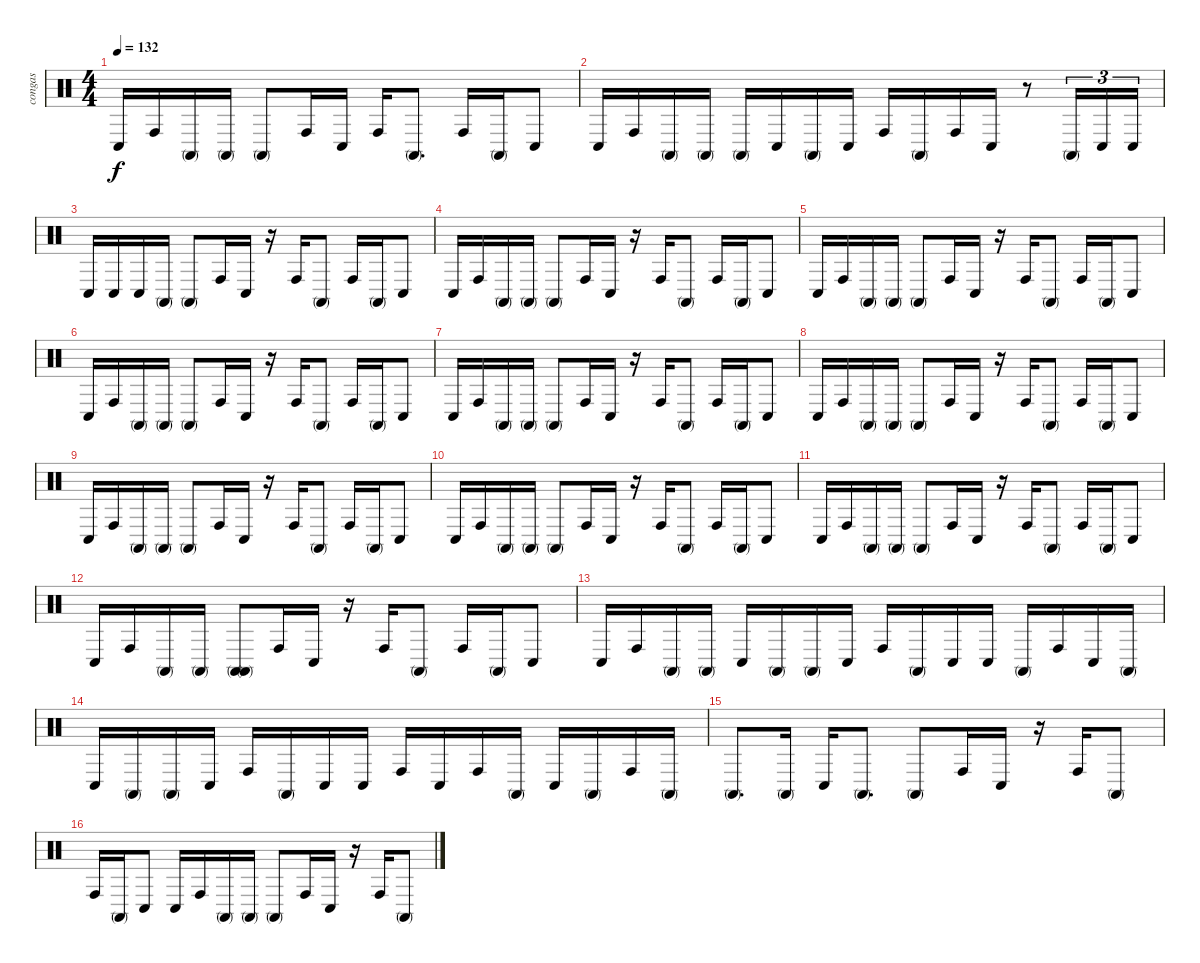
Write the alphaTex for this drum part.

\track ("congas" "congas") {instrument percussion}
\staff {score}
\articulation defaults
\ts (4 4)
\tempo 132
\clef neutral
\ks c "Conga low (hit)".16{dy f} "Conga high (hit)".16 "Conga high (mute)".16 "Conga high (mute)".16 "Conga high (mute)".8 "Conga high (hit)".16 "Conga low (hit)".16 "Conga high (hit)".16 "Conga high (mute)".8{d} "Conga high (hit)".16 "Conga high (mute)".16 "Conga low (hit)".8
|
"Conga low (hit)".16 "Conga high (hit)".16 "Conga high (mute)".16 "Conga high (mute)".16 "Conga high (mute)".16 "Conga low (hit)".16 "Conga high (mute)".16 "Conga low (hit)".16 "Conga high (hit)".16 "Conga high (mute)".16 "Conga high (hit)".16 "Conga low (hit)".16 r.8 "Conga high (mute)".16{tu (3 2)} "Conga low (hit)".16{tu (3 2)} "Conga low (hit)".16{tu (3 2)} |
"Conga low (hit)".16 "Conga low (hit)".16 "Conga low (hit)".16 "Conga high (mute)".16 "Conga high (mute)".8 "Conga high (hit)".16 "Conga low (hit)".16 r.16 "Conga high (hit)".16 "Conga high (mute)".8 "Conga high (hit)".16 "Conga high (mute)".16 "Conga low (hit)".8 |
"Conga low (hit)".16 "Conga high (hit)".16 "Conga high (mute)".16 "Conga high (mute)".16 "Conga high (mute)".8 "Conga high (hit)".16 "Conga low (hit)".16 r.16 "Conga high (hit)".16 "Conga high (mute)".8 "Conga high (hit)".16 "Conga high (mute)".16 "Conga low (hit)".8 |
"Conga low (hit)".16 "Conga high (hit)".16 "Conga high (mute)".16 "Conga high (mute)".16 "Conga high (mute)".8 "Conga high (hit)".16 "Conga low (hit)".16 r.16 "Conga high (hit)".16 "Conga high (mute)".8 "Conga high (hit)".16 "Conga high (mute)".16 "Conga low (hit)".8 |
"Conga low (hit)".16 "Conga high (hit)".16 "Conga high (mute)".16 "Conga high (mute)".16 "Conga high (mute)".8 "Conga high (hit)".16 "Conga low (hit)".16 r.16 "Conga high (hit)".16 "Conga high (mute)".8 "Conga high (hit)".16 "Conga high (mute)".16 "Conga low (hit)".8 |
"Conga low (hit)".16 "Conga high (hit)".16 "Conga high (mute)".16 "Conga high (mute)".16 "Conga high (mute)".8 "Conga high (hit)".16 "Conga low (hit)".16 r.16 "Conga high (hit)".16 "Conga high (mute)".8 "Conga high (hit)".16 "Conga high (mute)".16 "Conga low (hit)".8 |
"Conga low (hit)".16 "Conga high (hit)".16 "Conga high (mute)".16 "Conga high (mute)".16 "Conga high (mute)".8 "Conga high (hit)".16 "Conga low (hit)".16 r.16 "Conga high (hit)".16 "Conga high (mute)".8 "Conga high (hit)".16 "Conga high (mute)".16 "Conga low (hit)".8 |
"Conga low (hit)".16 "Conga high (hit)".16 "Conga high (mute)".16 "Conga high (mute)".16 "Conga high (mute)".8 "Conga high (hit)".16 "Conga low (hit)".16 r.16 "Conga high (hit)".16 "Conga high (mute)".8 "Conga high (hit)".16 "Conga high (mute)".16 "Conga low (hit)".8 |
"Conga low (hit)".16 "Conga high (hit)".16 "Conga high (mute)".16 "Conga high (mute)".16 "Conga high (mute)".8 "Conga high (hit)".16 "Conga low (hit)".16 r.16 "Conga high (hit)".16 "Conga high (mute)".8 "Conga high (hit)".16 "Conga high (mute)".16 "Conga low (hit)".8 |
"Conga low (hit)".16 "Conga high (hit)".16 "Conga high (mute)".16 "Conga high (mute)".16 "Conga high (mute)".8 "Conga high (hit)".16 "Conga low (hit)".16 r.16 "Conga high (hit)".16 "Conga high (mute)".8 "Conga high (hit)".16 "Conga high (mute)".16 "Conga low (hit)".8 |
"Conga low (hit)".16 "Conga high (hit)".16 "Conga high (mute)".16 "Conga high (mute)".16 ("Conga high (mute)" "Conga high (mute)").8 "Conga high (hit)".16 "Conga low (hit)".16 r.16 "Conga high (hit)".16 "Conga high (mute)".8 "Conga high (hit)".16 "Conga high (mute)".16 "Conga low (hit)".8 |
"Conga low (hit)".16 "Conga high (hit)".16 "Conga high (mute)".16 "Conga high (mute)".16 "Conga low (hit)".16 "Conga high (mute)".16 "Conga high (mute)".16 "Conga low (hit)".16 "Conga high (hit)".16 "Conga high (mute)".16 "Conga low (hit)".16 "Conga low (hit)".16 "Conga high (mute)".16 "Conga high (hit)".16 "Conga low (hit)".16 "Conga high (mute)".16 |
"Conga low (hit)".16 "Conga high (mute)".16 "Conga high (mute)".16 "Conga low (hit)".16 "Conga high (hit)".16 "Conga high (mute)".16 "Conga low (hit)".16 "Conga low (hit)".16 "Conga high (hit)".16 "Conga low (hit)".16 "Conga high (hit)".16 "Conga high (mute)".16 "Conga low (hit)".16 "Conga high (mute)".16 "Conga high (hit)".16 "Conga high (mute)".16 |
"Conga high (mute)".8{d} "Conga high (mute)".16 "Conga low (hit)".16 "Conga high (mute)".8{d} "Conga high (mute)".8 "Conga high (hit)".16 "Conga low (hit)".16 r.16 "Conga high (hit)".16 "Conga high (mute)".8 |
"Conga high (hit)".16 "Conga high (mute)".16 "Conga low (hit)".8 "Conga low (hit)".16 "Conga high (hit)".16 "Conga high (mute)".16 "Conga high (mute)".16 "Conga high (mute)".8 "Conga high (hit)".16 "Conga low (hit)".16 r.16 "Conga high (hit)".16 "Conga high (mute)".8
